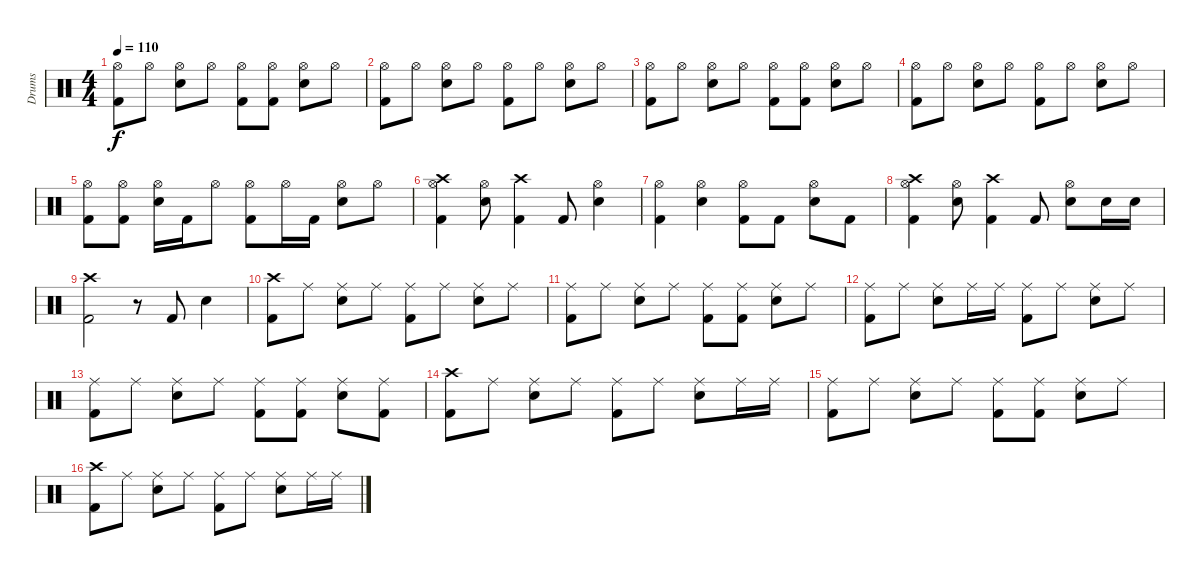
\track ("Drums" "Drums") {instrument percussion}
\staff {score}
\articulation defaults
\ts (4 4)
\tempo 110
\clef neutral
\ks c
("Hi-Hat (open)" "Kick (hit) 2").8{dy f} "Hi-Hat (open)".8 ("Hi-Hat (open)" "Electric Snare (hit)").8 "Hi-Hat (open)".8 ("Hi-Hat (open)" "Kick (hit) 2").8 ("Hi-Hat (open)" "Kick (hit) 2").8 ("Hi-Hat (open)" "Electric Snare (hit)").8 "Hi-Hat (open)".8 |
("Hi-Hat (open)" "Kick (hit) 2").8 "Hi-Hat (open)".8 ("Hi-Hat (open)" "Electric Snare (hit)").8 "Hi-Hat (open)".8 ("Hi-Hat (open)" "Kick (hit) 2").8 "Hi-Hat (open)".8 ("Hi-Hat (open)" "Electric Snare (hit)").8 "Hi-Hat (open)".8 |
("Hi-Hat (open)" "Kick (hit) 2").8 "Hi-Hat (open)".8 ("Hi-Hat (open)" "Electric Snare (hit)").8 "Hi-Hat (open)".8 ("Hi-Hat (open)" "Kick (hit) 2").8 ("Hi-Hat (open)" "Kick (hit) 2").8 ("Hi-Hat (open)" "Electric Snare (hit)").8 "Hi-Hat (open)".8 |
("Hi-Hat (open)" "Kick (hit) 2").8 "Hi-Hat (open)".8 ("Hi-Hat (open)" "Electric Snare (hit)").8 "Hi-Hat (open)".8 ("Hi-Hat (open)" "Kick (hit) 2").8 "Hi-Hat (open)".8 ("Hi-Hat (open)" "Electric Snare (hit)").8 "Hi-Hat (open)".8 |
("Hi-Hat (open)" "Kick (hit) 2").8 ("Hi-Hat (open)" "Kick (hit) 2").8 ("Hi-Hat (open)" "Electric Snare (hit)").16 "Kick (hit) 2".16 "Hi-Hat (open)".8 ("Hi-Hat (open)" "Kick (hit) 2").8 "Hi-Hat (open)".16 "Kick (hit) 2".16 ("Hi-Hat (open)" "Electric Snare (hit)").8 "Hi-Hat (open)".8 |
("Crash high (hit)" "Hi-Hat (open)" "Kick (hit) 2").4 ("Hi-Hat (open)" "Electric Snare (hit)").8 ("Crash high (hit)" "Kick (hit) 2").4 "Kick (hit) 2".8 ("Hi-Hat (open)" "Electric Snare (hit)").4 |
("Hi-Hat (open)" "Kick (hit) 2").4 ("Hi-Hat (open)" "Electric Snare (hit)").4 ("Hi-Hat (open)" "Kick (hit) 2").8 "Kick (hit) 2".8 ("Hi-Hat (open)" "Electric Snare (hit)").8 "Kick (hit) 2".8 |
("Crash high (hit)" "Hi-Hat (open)" "Kick (hit) 2").4 ("Hi-Hat (open)" "Electric Snare (hit)").8 ("Crash high (hit)" "Kick (hit) 2").4 "Kick (hit) 2".8 ("Hi-Hat (open)" "Electric Snare (hit)").8 "Electric Snare (hit)".16 "Electric Snare (hit)".16 |
("Crash high (hit)" "Kick (hit) 2").2 r.8 "Kick (hit) 2".8 "Electric Snare (hit)".4 |
("Crash high (hit)" "Kick (hit) 2").8 "Ride (middle)".8 ("Ride (middle)" "Electric Snare (hit)").8 "Ride (middle)".8 ("Ride (middle)" "Kick (hit) 2").8 "Ride (middle)".8 ("Ride (middle)" "Electric Snare (hit)").8 "Ride (middle)".8 |
("Ride (middle)" "Kick (hit) 2").8 "Ride (middle)".8 ("Ride (middle)" "Electric Snare (hit)").8 "Ride (middle)".8 ("Ride (middle)" "Kick (hit) 2").8 ("Ride (middle)" "Kick (hit) 2").8 ("Ride (middle)" "Electric Snare (hit)").8 "Ride (middle)".8 |
("Ride (middle)" "Kick (hit) 2").8 "Ride (middle)".8 ("Ride (middle)" "Electric Snare (hit)").8 "Ride (middle)".16 "Ride (middle)".16 ("Ride (middle)" "Kick (hit) 2").8 "Ride (middle)".8 ("Ride (middle)" "Electric Snare (hit)").8 "Ride (middle)".8 |
("Ride (middle)" "Kick (hit) 2").8 "Ride (middle)".8 ("Ride (middle)" "Electric Snare (hit)").8 "Ride (middle)".8 ("Ride (middle)" "Kick (hit) 2").8 ("Ride (middle)" "Kick (hit) 2").8 ("Ride (middle)" "Electric Snare (hit)").8 ("Ride (middle)" "Kick (hit) 2").8 |
("Crash high (hit)" "Kick (hit) 2").8 "Ride (middle)".8 ("Ride (middle)" "Electric Snare (hit)").8 "Ride (middle)".8 ("Ride (middle)" "Kick (hit) 2").8 "Ride (middle)".8 ("Ride (middle)" "Electric Snare (hit)").8 "Ride (middle)".16 "Ride (middle)".16 |
("Ride (middle)" "Kick (hit) 2").8 "Ride (middle)".8 ("Ride (middle)" "Electric Snare (hit)").8 "Ride (middle)".8 ("Ride (middle)" "Kick (hit) 2").8 ("Ride (middle)" "Kick (hit) 2").8 ("Ride (middle)" "Electric Snare (hit)").8 "Ride (middle)".8 |
("Crash high (hit)" "Kick (hit) 2").8 "Ride (middle)".8 ("Ride (middle)" "Electric Snare (hit)").8 "Ride (middle)".8 ("Ride (middle)" "Kick (hit) 2").8 "Ride (middle)".8 ("Ride (middle)" "Electric Snare (hit)").8 "Ride (middle)".16 "Ride (middle)".16
